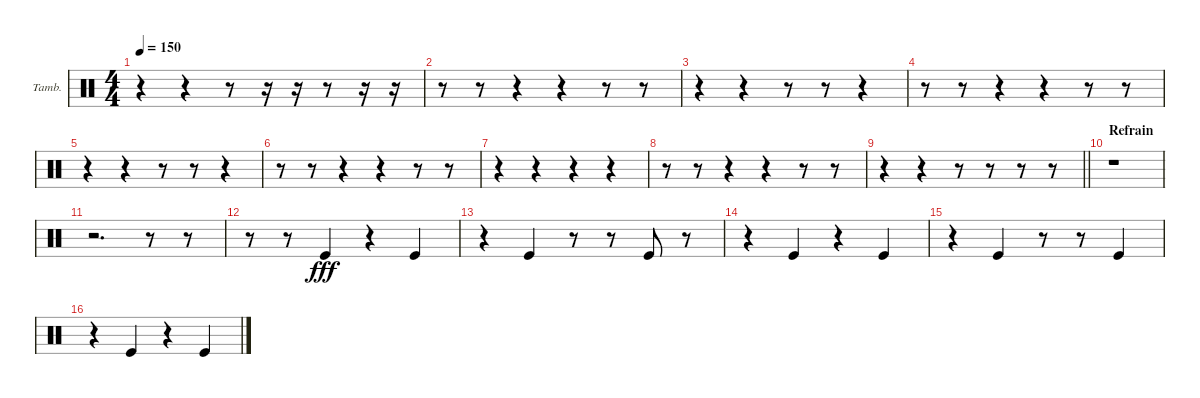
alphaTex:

\bracketExtendMode groupsimilarinstruments
\firstSystemTrackNameOrientation horizontal
\otherSystemsTrackNameOrientation horizontal
\track ("Tambourine" "Tamb.") {instrument percussion}
\staff {score}
\articulation defaults
\ts (4 4)
\tempo 150
\clef neutral
\ks c
r.4{dy fff} r.4 r.8 r.16 r.16 r.8 r.16 r.16 |
r.8 r.8 r.4 r.4 r.8 r.8 |
r.4 r.4 r.8 r.8 r.4 |
r.8 r.8 r.4 r.4 r.8 r.8 |
r.4 r.4 r.8 r.8 r.4 |
r.8 r.8 r.4 r.4 r.8 r.8 |
r.4 r.4 r.4 r.4 |
r.8 r.8 r.4 r.4 r.8 r.8 |
\barLineRight lightlight
r.4 r.4 r.8 r.8 r.8 r.8 |
\section ("" "Refrain")
r.1 |
r.2{d} r.8 r.8 |
r.8 r.8 "Kick (hit)".4 r.4 "Kick (hit)".4 |
r.4 "Kick (hit)".4 r.8 r.8 "Kick (hit)".8 r.8 |
r.4 "Kick (hit)".4 r.4 "Kick (hit)".4 |
r.4 "Kick (hit)".4 r.8 r.8 "Kick (hit)".4 |
r.4 "Kick (hit)".4 r.4 "Kick (hit)".4
